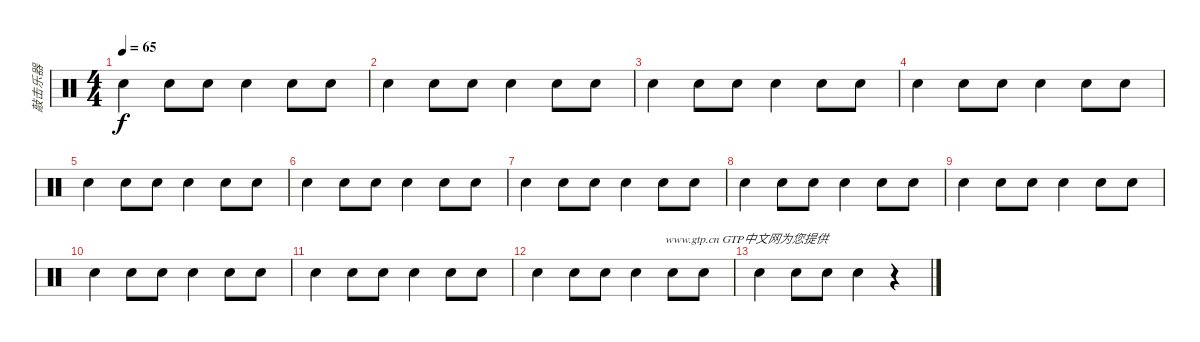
\track ("敲击乐器" "敲击乐器") {instrument percussion}
\staff {score}
\articulation defaults
\ts (4 4)
\tempo 65
\clef neutral
\ks c "Snare (hit) 2".4{dy f} "Snare (hit) 2".8 "Snare (hit) 2".8 "Snare (hit) 2".4 "Snare (hit) 2".8 "Snare (hit) 2".8
|
"Snare (hit) 2".4 "Snare (hit) 2".8 "Snare (hit) 2".8 "Snare (hit) 2".4 "Snare (hit) 2".8 "Snare (hit) 2".8 |
"Snare (hit) 2".4 "Snare (hit) 2".8 "Snare (hit) 2".8 "Snare (hit) 2".4 "Snare (hit) 2".8 "Snare (hit) 2".8 |
"Snare (hit) 2".4 "Snare (hit) 2".8 "Snare (hit) 2".8 "Snare (hit) 2".4 "Snare (hit) 2".8 "Snare (hit) 2".8 |
"Snare (hit) 2".4 "Snare (hit) 2".8 "Snare (hit) 2".8 "Snare (hit) 2".4 "Snare (hit) 2".8 "Snare (hit) 2".8 |
"Snare (hit) 2".4 "Snare (hit) 2".8 "Snare (hit) 2".8 "Snare (hit) 2".4 "Snare (hit) 2".8 "Snare (hit) 2".8 |
"Snare (hit) 2".4 "Snare (hit) 2".8 "Snare (hit) 2".8 "Snare (hit) 2".4 "Snare (hit) 2".8 "Snare (hit) 2".8 |
"Snare (hit) 2".4 "Snare (hit) 2".8 "Snare (hit) 2".8 "Snare (hit) 2".4 "Snare (hit) 2".8 "Snare (hit) 2".8 |
"Snare (hit) 2".4 "Snare (hit) 2".8 "Snare (hit) 2".8 "Snare (hit) 2".4 "Snare (hit) 2".8 "Snare (hit) 2".8 |
"Snare (hit) 2".4 "Snare (hit) 2".8 "Snare (hit) 2".8 "Snare (hit) 2".4 "Snare (hit) 2".8 "Snare (hit) 2".8 |
"Snare (hit) 2".4 "Snare (hit) 2".8 "Snare (hit) 2".8 "Snare (hit) 2".4 "Snare (hit) 2".8 "Snare (hit) 2".8 |
"Snare (hit) 2".4 "Snare (hit) 2".8 "Snare (hit) 2".8{txt "                    www.gtp.cn GTP中文网为您提供"} "Snare (hit) 2".4 "Snare (hit) 2".8 "Snare (hit) 2".8 |
"Snare (hit) 2".4 "Snare (hit) 2".8 "Snare (hit) 2".8 "Snare (hit) 2".4 r.4
